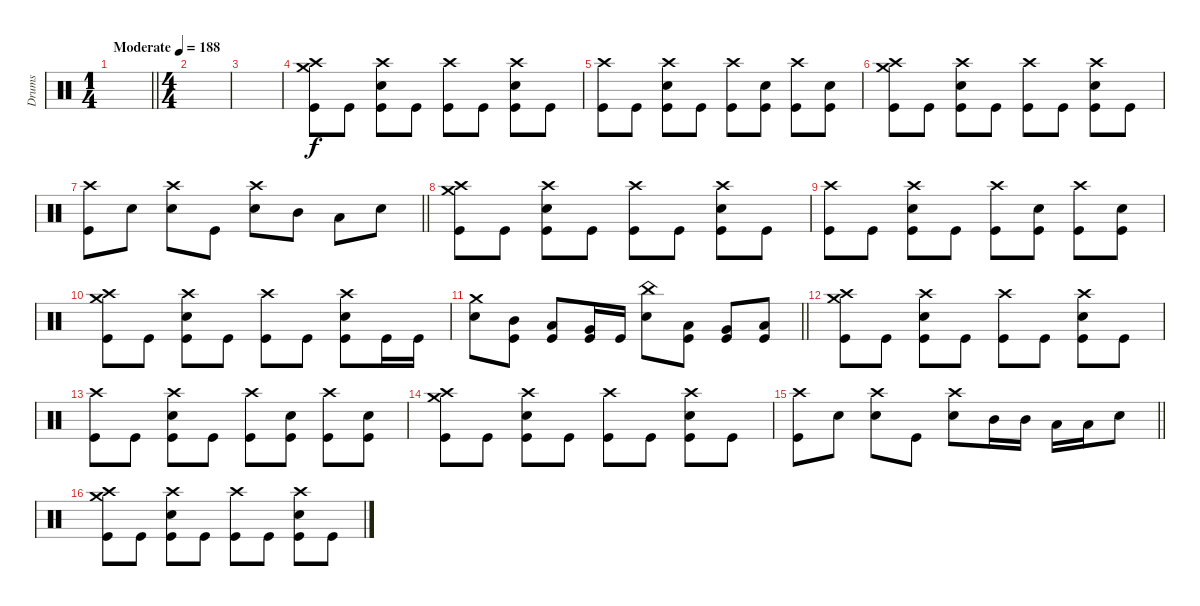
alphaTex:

\track ("Drums" "Drums") {instrument percussion}
\staff
\articulation defaults
\ts (1 4)
\tempo (188 "Moderate")
\clef neutral
\barLineRight lightlight
\ks c
|
\ts (4 4)
|
|
("Crash high (hit)" "Crash medium (hit)" "Kick (hit)").8 "Kick (hit)".8 ("Crash high (hit)" "Electric Snare (hit)" "Kick (hit)").8 "Kick (hit)".8 ("Crash high (hit)" "Kick (hit)").8 "Kick (hit)".8 ("Crash high (hit)" "Electric Snare (hit)" "Kick (hit)").8 "Kick (hit)".8 |
("Crash high (hit)" "Kick (hit)").8 "Kick (hit)".8 ("Crash high (hit)" "Electric Snare (hit)" "Kick (hit)").8 "Kick (hit)".8 ("Crash high (hit)" "Kick (hit)").8 ("Electric Snare (hit)" "Kick (hit)").8 ("Crash high (hit)" "Kick (hit)").8 ("Electric Snare (hit)" "Kick (hit)").8 |
("Crash high (hit)" "Crash medium (hit)" "Kick (hit)").8 "Kick (hit)".8 ("Crash high (hit)" "Electric Snare (hit)" "Kick (hit)").8 "Kick (hit)".8 ("Crash high (hit)" "Kick (hit)").8 "Kick (hit)".8 ("Crash high (hit)" "Electric Snare (hit)" "Kick (hit)").8 "Kick (hit)".8 |
\barLineRight lightlight
("Crash high (hit)" "Kick (hit)").8 "Electric Snare (hit)".8 ("Crash high (hit)" "Electric Snare (hit)").8 "Kick (hit)".8 ("Crash high (hit)" "Electric Snare (hit)").8 "Mid Tom (hit)".8 "Low Tom (hit)".8 "Electric Snare (hit)".8 |
("Crash high (hit)" "Crash medium (hit)" "Kick (hit)").8 "Kick (hit)".8 ("Crash high (hit)" "Electric Snare (hit)" "Kick (hit)").8 "Kick (hit)".8 ("Crash high (hit)" "Kick (hit)").8 "Kick (hit)".8 ("Crash high (hit)" "Electric Snare (hit)" "Kick (hit)").8 "Kick (hit)".8 |
("Crash high (hit)" "Kick (hit)").8 "Kick (hit)".8 ("Crash high (hit)" "Electric Snare (hit)" "Kick (hit)").8 "Kick (hit)".8 ("Crash high (hit)" "Kick (hit)").8 ("Electric Snare (hit)" "Kick (hit)").8 ("Crash high (hit)" "Kick (hit)").8 ("Electric Snare (hit)" "Kick (hit)").8 |
("Crash high (hit)" "Crash medium (hit)" "Kick (hit)").8 "Kick (hit)".8 ("Crash high (hit)" "Electric Snare (hit)" "Kick (hit)").8 "Kick (hit)".8 ("Crash high (hit)" "Kick (hit)").8 "Kick (hit)".8 ("Crash high (hit)" "Electric Snare (hit)" "Kick (hit)").8 "Kick (hit)".16 "Kick (hit)".16 |
\barLineRight lightlight
("Crash medium (hit)" "Electric Snare (hit)").8 ("Mid Tom (hit)" "Kick (hit)").8 ("Low Tom (hit)" "Kick (hit)").8 ("Very Low Tom (hit)" "Kick (hit)").16 "Kick (hit)".16 ("China (hit)" "Electric Snare (hit)").8 ("Low Tom (hit)" "Kick (hit)").8 ("Very Low Tom (hit)" "Kick (hit)").8 ("Low Floor Tom (hit)" "Kick (hit)").8 |
("Crash high (hit)" "Crash medium (hit)" "Kick (hit)").8 "Kick (hit)".8 ("Crash high (hit)" "Electric Snare (hit)" "Kick (hit)").8 "Kick (hit)".8 ("Crash high (hit)" "Kick (hit)").8 "Kick (hit)".8 ("Crash high (hit)" "Electric Snare (hit)" "Kick (hit)").8 "Kick (hit)".8 |
("Crash high (hit)" "Kick (hit)").8 "Kick (hit)".8 ("Crash high (hit)" "Electric Snare (hit)" "Kick (hit)").8 "Kick (hit)".8 ("Crash high (hit)" "Kick (hit)").8 ("Electric Snare (hit)" "Kick (hit)").8 ("Crash high (hit)" "Kick (hit)").8 ("Electric Snare (hit)" "Kick (hit)").8 |
("Crash high (hit)" "Crash medium (hit)" "Kick (hit)").8 "Kick (hit)".8 ("Crash high (hit)" "Electric Snare (hit)" "Kick (hit)").8 "Kick (hit)".8 ("Crash high (hit)" "Kick (hit)").8 "Kick (hit)".8 ("Crash high (hit)" "Electric Snare (hit)" "Kick (hit)").8 "Kick (hit)".8 |
\barLineRight lightlight
("Crash high (hit)" "Kick (hit)").8 "Electric Snare (hit)".8 ("Crash high (hit)" "Electric Snare (hit)").8 "Kick (hit)".8 ("Crash high (hit)" "Electric Snare (hit)").8 "Mid Tom (hit)".16 "Mid Tom (hit)".16 "Low Tom (hit)".16 "Low Tom (hit)".16 "Electric Snare (hit)".8 |
("Crash high (hit)" "Crash medium (hit)" "Kick (hit)").8 "Kick (hit)".8 ("Crash high (hit)" "Electric Snare (hit)" "Kick (hit)").8 "Kick (hit)".8 ("Crash high (hit)" "Kick (hit)").8 "Kick (hit)".8 ("Crash high (hit)" "Electric Snare (hit)" "Kick (hit)").8 "Kick (hit)".8
